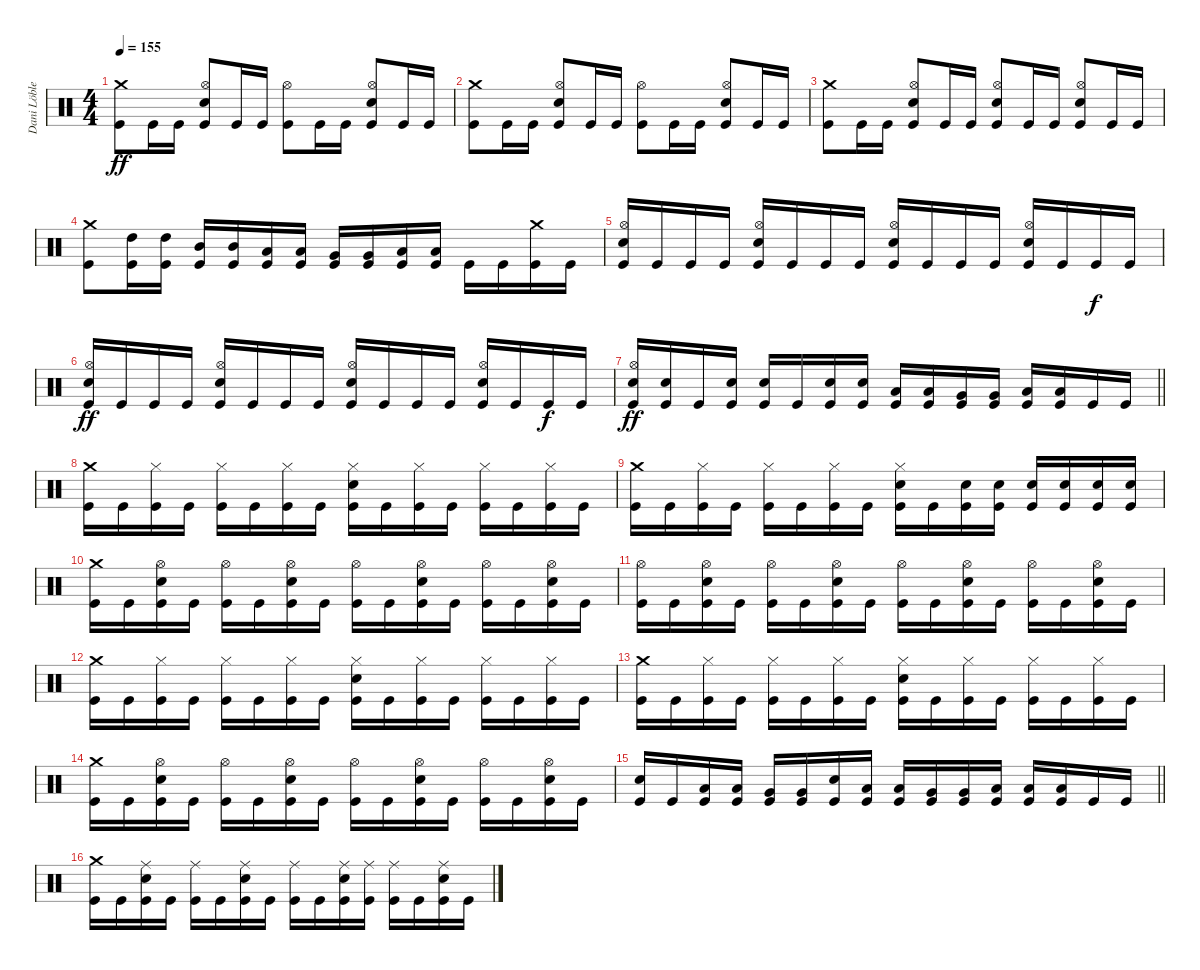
\track ("Dani Löble" "Dani Löble") {instrument percussion}
\staff {score}
\articulation defaults
\ts (4 4)
\tempo 155
\clef neutral
\ks c
("Crash medium (hit)" "Kick (hit)").8{dy ff} "Kick (hit)".16 "Kick (hit)".16 ("Hi-Hat (open)" "Electric Snare (hit)" "Kick (hit)").8 "Kick (hit)".16 "Kick (hit)".16 ("Hi-Hat (open)" "Kick (hit)").8 "Kick (hit)".16 "Kick (hit)".16 ("Hi-Hat (open)" "Electric Snare (hit)" "Kick (hit)").8 "Kick (hit)".16 "Kick (hit)".16 |
("Crash medium (hit)" "Kick (hit)").8 "Kick (hit)".16 "Kick (hit)".16 ("Hi-Hat (open)" "Electric Snare (hit)" "Kick (hit)").8 "Kick (hit)".16 "Kick (hit)".16 ("Hi-Hat (open)" "Kick (hit)").8 "Kick (hit)".16 "Kick (hit)".16 ("Hi-Hat (open)" "Electric Snare (hit)" "Kick (hit)").8 "Kick (hit)".16 "Kick (hit)".16 |
("Crash medium (hit)" "Kick (hit)").8 "Kick (hit)".16 "Kick (hit)".16 ("Hi-Hat (open)" "Electric Snare (hit)" "Kick (hit)").8 "Kick (hit)".16 "Kick (hit)".16 ("Hi-Hat (open)" "Electric Snare (hit)" "Kick (hit)").8 "Kick (hit)".16 "Kick (hit)".16 ("Hi-Hat (open)" "Electric Snare (hit)" "Kick (hit)").8 "Kick (hit)".16 "Kick (hit)".16 |
("Crash medium (hit)" "Kick (hit)").8 ("High Tom (hit)" "Kick (hit)").16 ("High Tom (hit)" "Kick (hit)").16 ("Mid Tom (hit)" "Kick (hit)").16 ("Mid Tom (hit)" "Kick (hit)").16 ("Low Tom (hit)" "Kick (hit)").16 ("Low Tom (hit)" "Kick (hit)").16 ("Very Low Tom (hit)" "Kick (hit)").16 ("Very Low Tom (hit)" "Kick (hit)").16 ("Low Floor Tom (hit)" "Kick (hit)").16 ("Low Floor Tom (hit)" "Kick (hit)").16 "Kick (hit)".16 "Kick (hit)".16 ("Crash medium (hit)" "Kick (hit)").16 "Kick (hit)".16 |
("Hi-Hat (open)" "Electric Snare (hit)" "Kick (hit)").16 "Kick (hit)".16 "Kick (hit)".16 "Kick (hit)".16 ("Hi-Hat (open)" "Electric Snare (hit)" "Kick (hit)").16 "Kick (hit)".16 "Kick (hit)".16 "Kick (hit)".16 ("Hi-Hat (open)" "Electric Snare (hit)" "Kick (hit)").16 "Kick (hit)".16 "Kick (hit)".16 "Kick (hit)".16 ("Hi-Hat (open)" "Electric Snare (hit)" "Kick (hit)").16 "Kick (hit)".16 "Kick (hit)".16{dy f} "Kick (hit)".16 |
("Hi-Hat (open)" "Electric Snare (hit)" "Kick (hit)").16{dy ff} "Kick (hit)".16 "Kick (hit)".16 "Kick (hit)".16 ("Hi-Hat (open)" "Electric Snare (hit)" "Kick (hit)").16 "Kick (hit)".16 "Kick (hit)".16 "Kick (hit)".16 ("Hi-Hat (open)" "Electric Snare (hit)" "Kick (hit)").16 "Kick (hit)".16 "Kick (hit)".16 "Kick (hit)".16 ("Hi-Hat (open)" "Electric Snare (hit)" "Kick (hit)").16 "Kick (hit)".16 "Kick (hit)".16{dy f} "Kick (hit)".16 |
\barLineRight lightlight
("Hi-Hat (open)" "Electric Snare (hit)" "Kick (hit)").16{dy ff} ("Electric Snare (hit)" "Kick (hit)").16 "Kick (hit)".16 ("Electric Snare (hit)" "Kick (hit)").16 ("Electric Snare (hit)" "Kick (hit)").16 "Kick (hit)".16 ("Electric Snare (hit)" "Kick (hit)").16 ("Electric Snare (hit)" "Kick (hit)").16 ("Low Tom (hit)" "Kick (hit)").16 ("Low Tom (hit)" "Kick (hit)").16 ("Very Low Tom (hit)" "Kick (hit)").16 ("Very Low Tom (hit)" "Kick (hit)").16 ("Low Floor Tom (hit)" "Kick (hit)").16 ("Low Floor Tom (hit)" "Kick (hit)").16 "Kick (hit)".16 "Kick (hit)".16 |
\section ("" "")
("Crash medium (hit)" "Kick (hit)").16 "Kick (hit)".16 ("Hi-Hat (closed)" "Kick (hit)").16 "Kick (hit)".16 ("Hi-Hat (closed)" "Kick (hit)").16 "Kick (hit)".16 ("Hi-Hat (closed)" "Kick (hit)").16 "Kick (hit)".16 ("Hi-Hat (closed)" "Electric Snare (hit)" "Kick (hit)").16 "Kick (hit)".16 ("Hi-Hat (closed)" "Kick (hit)").16 "Kick (hit)".16 ("Hi-Hat (closed)" "Kick (hit)").16 "Kick (hit)".16 ("Hi-Hat (closed)" "Kick (hit)").16 "Kick (hit)".16 |
("Crash medium (hit)" "Kick (hit)").16 "Kick (hit)".16 ("Hi-Hat (closed)" "Kick (hit)").16 "Kick (hit)".16 ("Hi-Hat (closed)" "Kick (hit)").16 "Kick (hit)".16 ("Hi-Hat (closed)" "Kick (hit)").16 "Kick (hit)".16 ("Hi-Hat (closed)" "Electric Snare (hit)" "Kick (hit)").16 "Kick (hit)".16 ("Electric Snare (hit)" "Kick (hit)").16 ("Electric Snare (hit)" "Kick (hit)").16 ("Electric Snare (hit)" "Kick (hit)").16 ("Electric Snare (hit)" "Kick (hit)").16 ("Electric Snare (hit)" "Kick (hit)").16 ("Electric Snare (hit)" "Kick (hit)").16 |
("Crash medium (hit)" "Kick (hit)").16 "Kick (hit)".16 ("Hi-Hat (open)" "Electric Snare (hit)" "Kick (hit)").16 "Kick (hit)".16 ("Hi-Hat (open)" "Kick (hit)").16 "Kick (hit)".16 ("Hi-Hat (open)" "Electric Snare (hit)" "Kick (hit)").16 "Kick (hit)".16 ("Hi-Hat (open)" "Kick (hit)").16 "Kick (hit)".16 ("Hi-Hat (open)" "Electric Snare (hit)" "Kick (hit)").16 "Kick (hit)".16 ("Hi-Hat (open)" "Kick (hit)").16 "Kick (hit)".16 ("Hi-Hat (open)" "Electric Snare (hit)" "Kick (hit)").16 "Kick (hit)".16 |
("Hi-Hat (open)" "Kick (hit)").16 "Kick (hit)".16 ("Hi-Hat (open)" "Electric Snare (hit)" "Kick (hit)").16 "Kick (hit)".16 ("Hi-Hat (open)" "Kick (hit)").16 "Kick (hit)".16 ("Hi-Hat (open)" "Electric Snare (hit)" "Kick (hit)").16 "Kick (hit)".16 ("Hi-Hat (open)" "Kick (hit)").16 "Kick (hit)".16 ("Hi-Hat (open)" "Electric Snare (hit)" "Kick (hit)").16 "Kick (hit)".16 ("Hi-Hat (open)" "Kick (hit)").16 "Kick (hit)".16 ("Hi-Hat (open)" "Electric Snare (hit)" "Kick (hit)").16 "Kick (hit)".16 |
("Crash medium (hit)" "Kick (hit)").16 "Kick (hit)".16 ("Hi-Hat (closed)" "Kick (hit)").16 "Kick (hit)".16 ("Hi-Hat (closed)" "Kick (hit)").16 "Kick (hit)".16 ("Hi-Hat (closed)" "Kick (hit)").16 "Kick (hit)".16 ("Hi-Hat (closed)" "Electric Snare (hit)" "Kick (hit)").16 "Kick (hit)".16 ("Hi-Hat (closed)" "Kick (hit)").16 "Kick (hit)".16 ("Hi-Hat (closed)" "Kick (hit)").16 "Kick (hit)".16 ("Hi-Hat (closed)" "Kick (hit)").16 "Kick (hit)".16 |
("Crash medium (hit)" "Kick (hit)").16 "Kick (hit)".16 ("Hi-Hat (closed)" "Kick (hit)").16 "Kick (hit)".16 ("Hi-Hat (closed)" "Kick (hit)").16 "Kick (hit)".16 ("Hi-Hat (closed)" "Kick (hit)").16 "Kick (hit)".16 ("Hi-Hat (closed)" "Electric Snare (hit)" "Kick (hit)").16 "Kick (hit)".16 ("Hi-Hat (closed)" "Kick (hit)").16 "Kick (hit)".16 ("Hi-Hat (closed)" "Kick (hit)").16 "Kick (hit)".16 ("Hi-Hat (closed)" "Kick (hit)").16 "Kick (hit)".16 |
("Crash medium (hit)" "Kick (hit)").16 "Kick (hit)".16 ("Hi-Hat (open)" "Electric Snare (hit)" "Kick (hit)").16 "Kick (hit)".16 ("Hi-Hat (open)" "Kick (hit)").16 "Kick (hit)".16 ("Hi-Hat (open)" "Electric Snare (hit)" "Kick (hit)").16 "Kick (hit)".16 ("Hi-Hat (open)" "Kick (hit)").16 "Kick (hit)".16 ("Hi-Hat (open)" "Electric Snare (hit)" "Kick (hit)").16 "Kick (hit)".16 ("Hi-Hat (open)" "Kick (hit)").16 "Kick (hit)".16 ("Hi-Hat (open)" "Electric Snare (hit)" "Kick (hit)").16 "Kick (hit)".16 |
\barLineRight lightlight
("Electric Snare (hit)" "Kick (hit)").16 "Kick (hit)".16 ("Low Tom (hit)" "Kick (hit)").16 ("Low Tom (hit)" "Kick (hit)").16 ("Very Low Tom (hit)" "Kick (hit)").16 ("Very Low Tom (hit)" "Kick (hit)").16 ("Electric Snare (hit)" "Kick (hit)").16 ("Low Tom (hit)" "Kick (hit)").16 ("Low Tom (hit)" "Kick (hit)").16 ("Very Low Tom (hit)" "Kick (hit)").16 ("Very Low Tom (hit)" "Kick (hit)").16 ("Low Floor Tom (hit)" "Kick (hit)").16 ("Low Floor Tom (hit)" "Kick (hit)").16 ("Low Floor Tom (hit)" "Kick (hit)").16 "Kick (hit)".16 "Kick (hit)".16 |
\section ("" "")
("Crash medium (hit)" "Kick (hit)").16 "Kick (hit)".16 ("Ride (middle)" "Electric Snare (hit)" "Kick (hit)").16 "Kick (hit)".16 ("Ride (middle)" "Kick (hit)").16 "Kick (hit)".16 ("Ride (middle)" "Electric Snare (hit)" "Kick (hit)").16 "Kick (hit)".16 ("Ride (middle)" "Kick (hit)").16 "Kick (hit)".16 ("Ride (middle)" "Electric Snare (hit)" "Kick (hit)").16 ("Ride (middle)" "Kick (hit)").16 ("Ride (middle)" "Kick (hit)").16 "Kick (hit)".16 ("Ride (middle)" "Electric Snare (hit)" "Kick (hit)").16 "Kick (hit)".16
